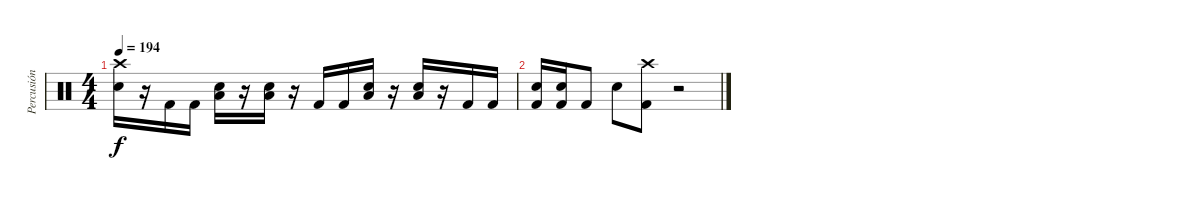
\track ("Percusión" "Percusión") {instrument percussion}
\staff {score}
\articulation defaults
\ts (4 4)
\tempo 194
\clef neutral
\ks c
("Snare (hit) 2" "Crash high (hit)").16{dy f} r.16 "Kick (hit) 2".16 "Kick (hit) 2".16 ("Low Tom (hit)" "Snare (hit) 2").16 r.16 ("Low Tom (hit)" "Snare (hit) 2").16 r.16 "Kick (hit) 2".16 "Kick (hit) 2".16 ("Low Tom (hit)" "Snare (hit) 2").16 r.16 ("Low Tom (hit)" "Snare (hit) 2").16 r.16 "Kick (hit) 2".16 "Kick (hit) 2".16 |
("Kick (hit) 2" "Snare (hit) 2").16 ("Kick (hit) 2" "Snare (hit) 2").16 "Kick (hit) 2".8 "Snare (hit) 2".8 ("Kick (hit) 2" "Crash high (hit)").8 r.2
